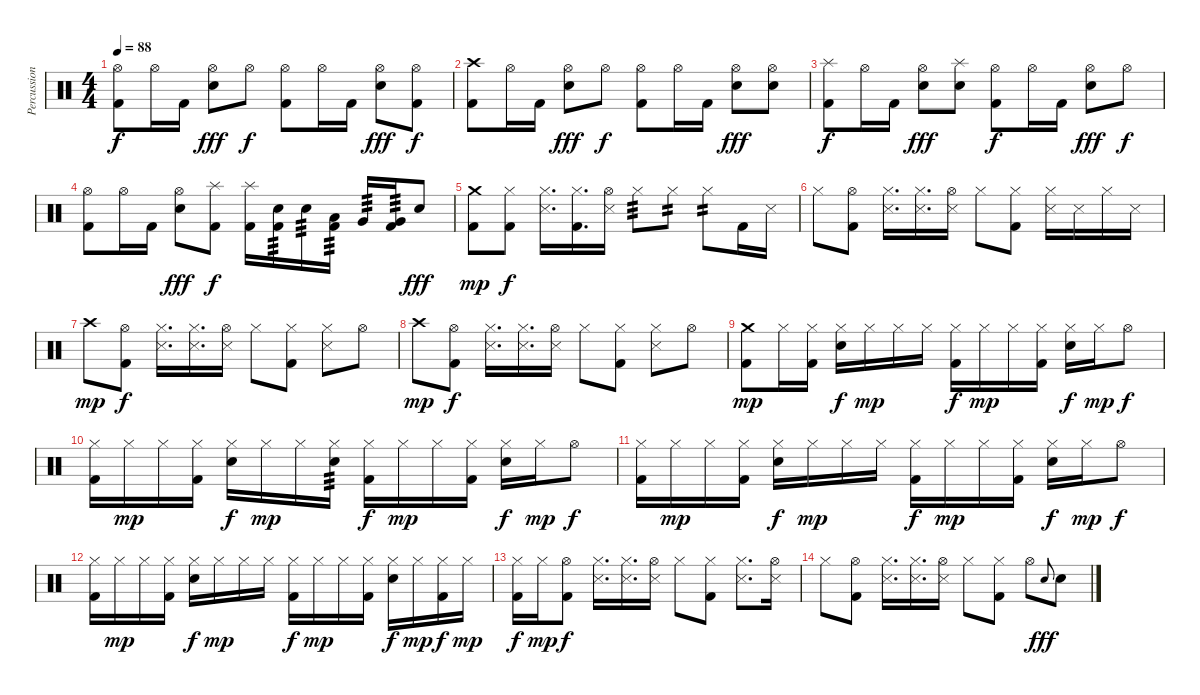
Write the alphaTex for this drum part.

\track ("Percussion" "Percussion") {instrument percussion}
\staff {score}
\articulation defaults
\ts (4 4)
\tempo 88
\clef neutral
\ks c
("Hi-Hat (open)" "Kick (hit) 2").8{dy f} "Hi-Hat (open)".16 "Kick (hit) 2".16 ("Hi-Hat (open)" "Electric Snare (hit)").8{dy fff} "Hi-Hat (open)".8{dy f} ("Hi-Hat (open)" "Kick (hit) 2").8 "Hi-Hat (open)".16 "Kick (hit) 2".16 ("Hi-Hat (open)" "Electric Snare (hit)").8{dy fff} ("Hi-Hat (open)" "Kick (hit) 2").8{dy f} |
("Crash high (hit)" "Kick (hit) 2").8 "Hi-Hat (open)".16 "Kick (hit) 2".16 ("Hi-Hat (open)" "Electric Snare (hit)").8{dy fff} "Hi-Hat (open)".8{dy f} ("Hi-Hat (open)" "Kick (hit) 2").8 "Hi-Hat (open)".16 "Kick (hit) 2".16 ("Hi-Hat (open)" "Electric Snare (hit)").8{dy fff} ("Hi-Hat (open)" "Electric Snare (hit)").8 |
("Splash (hit)" "Kick (hit) 2").8{dy f} "Hi-Hat (open)".16 "Kick (hit) 2".16 ("Hi-Hat (open)" "Electric Snare (hit)").8{dy fff} ("Splash (hit)" "Electric Snare (hit)").8 ("Hi-Hat (open)" "Kick (hit) 2").8{dy f} "Hi-Hat (open)".16 "Kick (hit) 2".16 ("Hi-Hat (open)" "Electric Snare (hit)").8{dy fff} "Hi-Hat (open)".8{dy f} |
("Hi-Hat (open)" "Kick (hit) 2").8 "Hi-Hat (open)".16 "Kick (hit) 2".16 ("Hi-Hat (open)" "Electric Snare (hit)").8{dy fff} ("Splash (hit)" "Kick (hit) 2").8{dy f} ("Splash (hit)" "Kick (hit) 2").16 ("Electric Snare (hit)" "Kick (hit) 2").16{tp 3} "Electric Snare (hit)".16{tp 3} ("Low Tom (hit)" "Kick (hit) 2").16{tp 3} "Very Low Tom (hit)".16{tp 3} ("Very Low Tom (hit)" "Kick (hit) 2").16{tp 3} "Electric Snare (hit)".8{dy fff} |
("Crash medium (hit)" "Kick (hit) 2").8{dy mp} ("Hi-Hat (closed)" "Kick (hit) 2").8{dy f} ("Hi-Hat (closed)" "Snare (side stick) 3").16{d} ("Hi-Hat (closed)" "Kick (hit) 2").16{d} ("Hi-Hat (open)" "Snare (side stick) 3").16 "Hi-Hat (closed)".8{tp 3} "Hi-Hat (closed)".8{tp 2} "Hi-Hat (closed)".8{tp 2} "Kick (hit) 2".16 "Snare (side stick) 3".16 |
"Hi-Hat (closed)".8 ("Hi-Hat (open)" "Kick (hit) 2").8 ("Hi-Hat (closed)" "Snare (side stick) 3").16{d} ("Hi-Hat (closed)" "Snare (side stick) 3").16{d} ("Hi-Hat (open)" "Snare (side stick) 3").16 "Hi-Hat (closed)".8 ("Hi-Hat (closed)" "Kick (hit) 2").8 ("Hi-Hat (closed)" "Snare (side stick) 3").16 "Snare (side stick) 3".16 "Hi-Hat (closed)".16 "Snare (side stick) 3".16 |
"Crash high (hit)".8{dy mp} ("Hi-Hat (open)" "Kick (hit) 2").8{dy f} ("Hi-Hat (closed)" "Snare (side stick) 3").16{d} ("Hi-Hat (closed)" "Snare (side stick) 3").16{d} ("Hi-Hat (open)" "Snare (side stick) 3").16 "Hi-Hat (closed)".8 ("Hi-Hat (closed)" "Kick (hit) 2").8 ("Hi-Hat (closed)" "Snare (side stick) 3").8 "Hi-Hat (open)".8 |
"Crash high (hit)".8{dy mp} ("Hi-Hat (open)" "Kick (hit) 2").8{dy f} ("Hi-Hat (closed)" "Snare (side stick) 3").16{d} ("Hi-Hat (closed)" "Snare (side stick) 3").16{d} ("Hi-Hat (open)" "Snare (side stick) 3").16 "Hi-Hat (closed)".8 ("Hi-Hat (closed)" "Kick (hit) 2").8 ("Hi-Hat (closed)" "Snare (side stick) 3").8 "Hi-Hat (open)".8 |
("Crash medium (hit)" "Kick (hit) 2").8{dy mp} "Hi-Hat (closed)".16 ("Hi-Hat (closed)" "Kick (hit) 2").16 ("Hi-Hat (closed)" "Electric Snare (hit)").16{dy f} "Hi-Hat (closed)".16{dy mp} "Hi-Hat (closed)".16 "Hi-Hat (closed)".16 ("Hi-Hat (closed)" "Kick (hit) 2").16{dy f} "Hi-Hat (closed)".16{dy mp} "Hi-Hat (closed)".16 ("Hi-Hat (closed)" "Kick (hit) 2").16 ("Hi-Hat (closed)" "Electric Snare (hit)").16{dy f} "Hi-Hat (closed)".16{dy mp} "Hi-Hat (open)".8{dy f} |
("Hi-Hat (closed)" "Kick (hit) 2").16 "Hi-Hat (closed)".16{dy mp} "Hi-Hat (closed)".16 ("Hi-Hat (closed)" "Kick (hit) 2").16 ("Hi-Hat (closed)" "Electric Snare (hit)").16{dy f} "Hi-Hat (closed)".16{dy mp} "Hi-Hat (closed)".16 ("Hi-Hat (closed)" "Electric Snare (hit)").16{tp 3} ("Hi-Hat (closed)" "Kick (hit) 2").16{dy f} "Hi-Hat (closed)".16{dy mp} "Hi-Hat (closed)".16 ("Hi-Hat (closed)" "Kick (hit) 2").16 ("Hi-Hat (closed)" "Electric Snare (hit)").16{dy f} "Hi-Hat (closed)".16{dy mp} "Hi-Hat (open)".8{dy f volume 0} |
("Hi-Hat (closed)" "Kick (hit) 2").16 "Hi-Hat (closed)".16{dy mp} "Hi-Hat (closed)".16 ("Hi-Hat (closed)" "Kick (hit) 2").16 ("Hi-Hat (closed)" "Electric Snare (hit)").16{dy f} "Hi-Hat (closed)".16{dy mp} "Hi-Hat (closed)".16 "Hi-Hat (closed)".16 ("Hi-Hat (closed)" "Kick (hit) 2").16{dy f} "Hi-Hat (closed)".16{dy mp} "Hi-Hat (closed)".16 ("Hi-Hat (closed)" "Kick (hit) 2").16 ("Hi-Hat (closed)" "Electric Snare (hit)").16{dy f} "Hi-Hat (closed)".16{dy mp} "Hi-Hat (open)".8{dy f} |
("Hi-Hat (closed)" "Kick (hit) 2").16 "Hi-Hat (closed)".16{dy mp} "Hi-Hat (closed)".16 ("Hi-Hat (closed)" "Kick (hit) 2").16 ("Hi-Hat (closed)" "Electric Snare (hit)").16{dy f} "Hi-Hat (closed)".16{dy mp} "Hi-Hat (closed)".16 "Hi-Hat (closed)".16 ("Hi-Hat (closed)" "Kick (hit) 2").16{dy f} "Hi-Hat (closed)".16{dy mp} "Hi-Hat (closed)".16 ("Hi-Hat (closed)" "Kick (hit) 2").16 ("Hi-Hat (closed)" "Electric Snare (hit)").16{dy f} "Hi-Hat (closed)".16{dy mp} ("Hi-Hat (closed)" "Kick (hit) 2").16{dy f} "Hi-Hat (closed)".16{dy mp} |
("Hi-Hat (closed)" "Kick (hit) 2").16{dy f} "Hi-Hat (closed)".16{dy mp} ("Hi-Hat (open)" "Kick (hit) 2").8{dy f} ("Hi-Hat (closed)" "Snare (side stick) 3").16{d} ("Hi-Hat (closed)" "Snare (side stick) 3").16{d} ("Hi-Hat (open)" "Snare (side stick) 3").16 "Hi-Hat (closed)".8 ("Hi-Hat (closed)" "Kick (hit) 2").8 ("Hi-Hat (closed)" "Snare (side stick) 3").8{d} ("Hi-Hat (open)" "Snare (side stick) 3").16 |
"Hi-Hat (closed)".8 ("Hi-Hat (open)" "Kick (hit) 2").8 ("Hi-Hat (closed)" "Snare (side stick) 3").16{d} ("Hi-Hat (closed)" "Snare (side stick) 3").16{d} ("Hi-Hat (open)" "Snare (side stick) 3").16 "Hi-Hat (closed)".8 ("Hi-Hat (closed)" "Kick (hit) 2").8 "Hi-Hat (open)".8 "Electric Snare (hit)".8{gr onbeat dy fff} "Electric Snare (hit)".8
